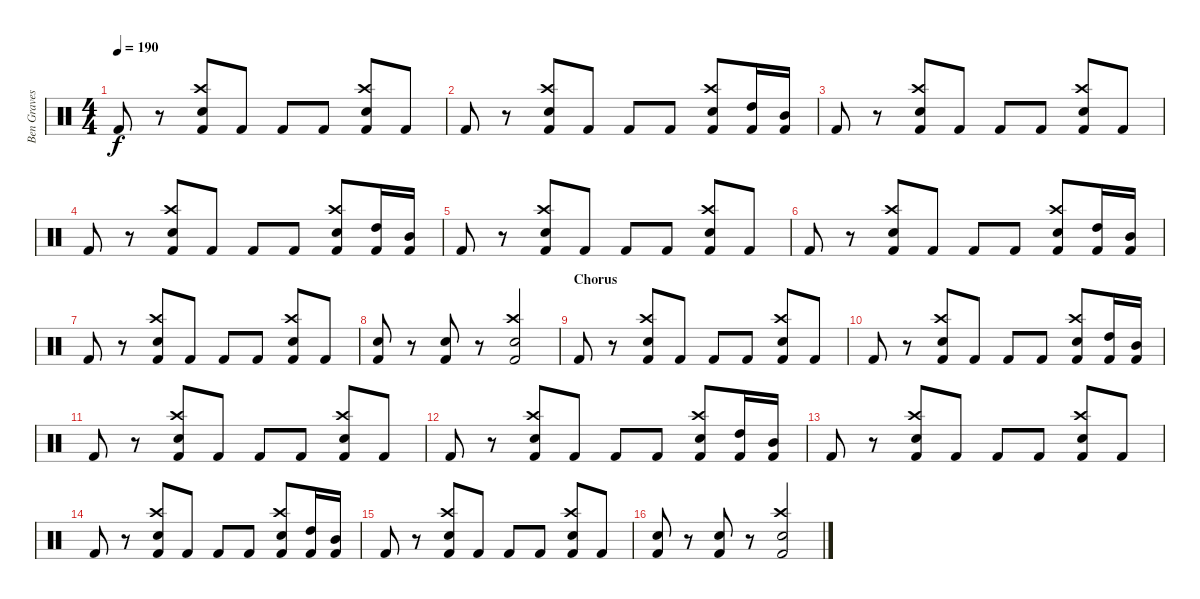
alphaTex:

\track ("Ben Graves" "Ben Graves") {instrument percussion}
\staff {score}
\articulation defaults
\ts (4 4)
\tempo 190
\clef neutral
\ks c "Kick (hit) 2".8{dy f}
r.8 ("Crash high (hit)" "Electric Snare (hit)" "Kick (hit) 2").8 "Kick (hit) 2".8 "Kick (hit) 2".8 "Kick (hit) 2".8 ("Crash high (hit)" "Electric Snare (hit)" "Kick (hit) 2").8 "Kick (hit) 2".8 |
"Kick (hit) 2".8 r.8 ("Crash high (hit)" "Electric Snare (hit)" "Kick (hit) 2").8 "Kick (hit) 2".8 "Kick (hit) 2".8 "Kick (hit) 2".8 ("Crash high (hit)" "Electric Snare (hit)" "Kick (hit) 2").8 ("High Tom (hit)" "Kick (hit) 2").16 ("Mid Tom (hit)" "Kick (hit) 2").16 |
"Kick (hit) 2".8 r.8 ("Crash high (hit)" "Electric Snare (hit)" "Kick (hit) 2").8 "Kick (hit) 2".8 "Kick (hit) 2".8 "Kick (hit) 2".8 ("Crash high (hit)" "Electric Snare (hit)" "Kick (hit) 2").8 "Kick (hit) 2".8 |
"Kick (hit) 2".8 r.8 ("Crash high (hit)" "Electric Snare (hit)" "Kick (hit) 2").8 "Kick (hit) 2".8 "Kick (hit) 2".8 "Kick (hit) 2".8 ("Crash high (hit)" "Electric Snare (hit)" "Kick (hit) 2").8 ("High Tom (hit)" "Kick (hit) 2").16 ("Mid Tom (hit)" "Kick (hit) 2").16 |
"Kick (hit) 2".8 r.8 ("Crash high (hit)" "Electric Snare (hit)" "Kick (hit) 2").8 "Kick (hit) 2".8 "Kick (hit) 2".8 "Kick (hit) 2".8 ("Crash high (hit)" "Electric Snare (hit)" "Kick (hit) 2").8 "Kick (hit) 2".8 |
"Kick (hit) 2".8 r.8 ("Crash high (hit)" "Electric Snare (hit)" "Kick (hit) 2").8 "Kick (hit) 2".8 "Kick (hit) 2".8 "Kick (hit) 2".8 ("Crash high (hit)" "Electric Snare (hit)" "Kick (hit) 2").8 ("High Tom (hit)" "Kick (hit) 2").16 ("Mid Tom (hit)" "Kick (hit) 2").16 |
"Kick (hit) 2".8 r.8 ("Crash high (hit)" "Electric Snare (hit)" "Kick (hit) 2").8 "Kick (hit) 2".8 "Kick (hit) 2".8 "Kick (hit) 2".8 ("Crash high (hit)" "Electric Snare (hit)" "Kick (hit) 2").8 "Kick (hit) 2".8 |
("Electric Snare (hit)" "Kick (hit) 2").8 r.8 ("Electric Snare (hit)" "Kick (hit) 2").8 r.8 ("Crash high (hit)" "Electric Snare (hit)" "Kick (hit) 2").2 |
\section ("" "Chorus")
"Kick (hit) 2".8 r.8 ("Crash high (hit)" "Electric Snare (hit)" "Kick (hit) 2").8 "Kick (hit) 2".8 "Kick (hit) 2".8 "Kick (hit) 2".8 ("Crash high (hit)" "Electric Snare (hit)" "Kick (hit) 2").8 "Kick (hit) 2".8 |
"Kick (hit) 2".8 r.8 ("Crash high (hit)" "Electric Snare (hit)" "Kick (hit) 2").8 "Kick (hit) 2".8 "Kick (hit) 2".8 "Kick (hit) 2".8 ("Crash high (hit)" "Electric Snare (hit)" "Kick (hit) 2").8 ("High Tom (hit)" "Kick (hit) 2").16 ("Mid Tom (hit)" "Kick (hit) 2").16 |
"Kick (hit) 2".8 r.8 ("Crash high (hit)" "Electric Snare (hit)" "Kick (hit) 2").8 "Kick (hit) 2".8 "Kick (hit) 2".8 "Kick (hit) 2".8 ("Crash high (hit)" "Electric Snare (hit)" "Kick (hit) 2").8 "Kick (hit) 2".8 |
"Kick (hit) 2".8 r.8 ("Crash high (hit)" "Electric Snare (hit)" "Kick (hit) 2").8 "Kick (hit) 2".8 "Kick (hit) 2".8 "Kick (hit) 2".8 ("Crash high (hit)" "Electric Snare (hit)" "Kick (hit) 2").8 ("High Tom (hit)" "Kick (hit) 2").16 ("Mid Tom (hit)" "Kick (hit) 2").16 |
"Kick (hit) 2".8 r.8 ("Crash high (hit)" "Electric Snare (hit)" "Kick (hit) 2").8 "Kick (hit) 2".8 "Kick (hit) 2".8 "Kick (hit) 2".8 ("Crash high (hit)" "Electric Snare (hit)" "Kick (hit) 2").8 "Kick (hit) 2".8 |
"Kick (hit) 2".8 r.8 ("Crash high (hit)" "Electric Snare (hit)" "Kick (hit) 2").8 "Kick (hit) 2".8 "Kick (hit) 2".8 "Kick (hit) 2".8 ("Crash high (hit)" "Electric Snare (hit)" "Kick (hit) 2").8 ("High Tom (hit)" "Kick (hit) 2").16 ("Mid Tom (hit)" "Kick (hit) 2").16 |
"Kick (hit) 2".8 r.8 ("Crash high (hit)" "Electric Snare (hit)" "Kick (hit) 2").8 "Kick (hit) 2".8 "Kick (hit) 2".8 "Kick (hit) 2".8 ("Crash high (hit)" "Electric Snare (hit)" "Kick (hit) 2").8 "Kick (hit) 2".8 |
("Electric Snare (hit)" "Kick (hit) 2").8 r.8 ("Electric Snare (hit)" "Kick (hit) 2").8 r.8 ("Crash high (hit)" "Electric Snare (hit)" "Kick (hit) 2").2
